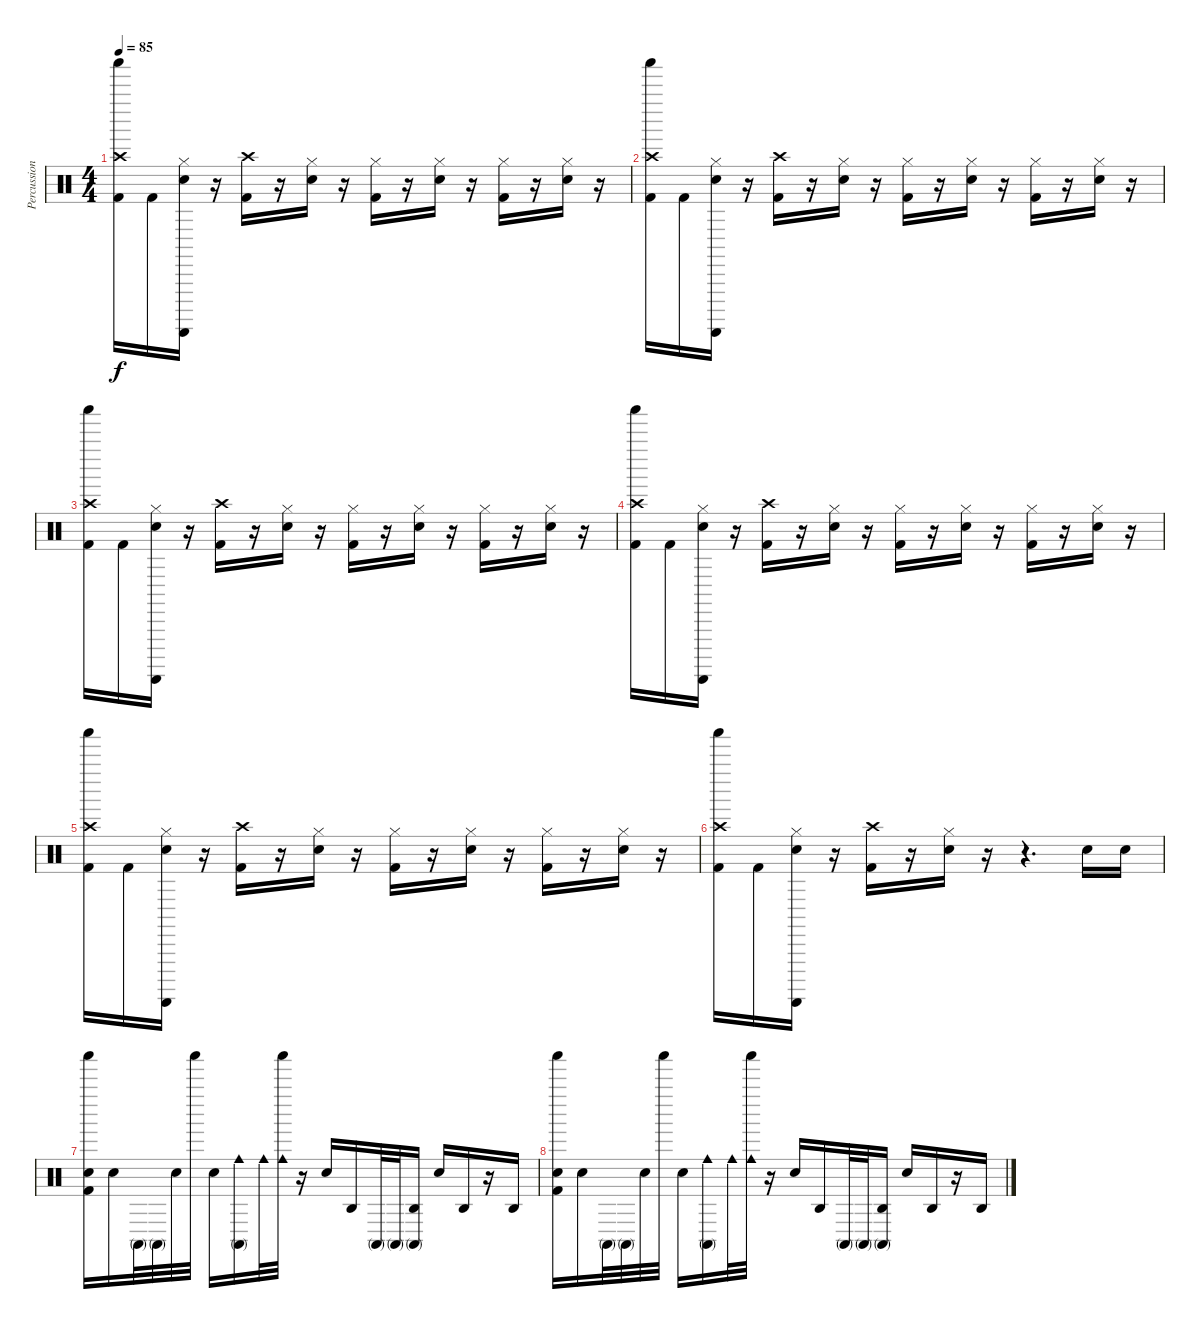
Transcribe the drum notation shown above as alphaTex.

\track ("Percussioni" "Percussion") {instrument percussion}
\staff {score}
\articulation defaults
\ts (4 4)
\tempo 85
\clef neutral
\ks c
("Shaker (hit)" "Crash high (hit)" "Kick (hit) 2").16{dy f} "Kick (hit) 2".16 ("Hi-Hat (closed)" "Guiro (scrap-return)" "Electric Snare (hit)").16 r.16 ("Crash high (hit)" "Kick (hit) 2").16 r.16 ("Hi-Hat (closed)" "Electric Snare (hit)").16 r.16 ("Hi-Hat (closed)" "Kick (hit) 2").16 r.16 ("Hi-Hat (closed)" "Electric Snare (hit)").16 r.16 ("Hi-Hat (closed)" "Kick (hit) 2").16 r.16 ("Hi-Hat (closed)" "Electric Snare (hit)").16 r.16 |
("Shaker (hit)" "Crash high (hit)" "Kick (hit) 2").16 "Kick (hit) 2".16 ("Hi-Hat (closed)" "Guiro (scrap-return)" "Electric Snare (hit)").16 r.16 ("Crash high (hit)" "Kick (hit) 2").16 r.16 ("Hi-Hat (closed)" "Electric Snare (hit)").16 r.16 ("Hi-Hat (closed)" "Kick (hit) 2").16 r.16 ("Hi-Hat (closed)" "Electric Snare (hit)").16 r.16 ("Hi-Hat (closed)" "Kick (hit) 2").16 r.16 ("Hi-Hat (closed)" "Electric Snare (hit)").16 r.16 |
("Shaker (hit)" "Crash high (hit)" "Kick (hit) 2").16 "Kick (hit) 2".16 ("Hi-Hat (closed)" "Guiro (scrap-return)" "Electric Snare (hit)").16 r.16 ("Crash high (hit)" "Kick (hit) 2").16 r.16 ("Hi-Hat (closed)" "Electric Snare (hit)").16 r.16 ("Hi-Hat (closed)" "Kick (hit) 2").16 r.16 ("Hi-Hat (closed)" "Electric Snare (hit)").16 r.16 ("Hi-Hat (closed)" "Kick (hit) 2").16 r.16 ("Hi-Hat (closed)" "Electric Snare (hit)").16 r.16 |
("Shaker (hit)" "Crash high (hit)" "Kick (hit) 2").16 "Kick (hit) 2".16 ("Hi-Hat (closed)" "Guiro (scrap-return)" "Electric Snare (hit)").16 r.16 ("Crash high (hit)" "Kick (hit) 2").16 r.16 ("Hi-Hat (closed)" "Electric Snare (hit)").16 r.16 ("Hi-Hat (closed)" "Kick (hit) 2").16 r.16 ("Hi-Hat (closed)" "Electric Snare (hit)").16 r.16 ("Hi-Hat (closed)" "Kick (hit) 2").16 r.16 ("Hi-Hat (closed)" "Electric Snare (hit)").16 r.16 |
("Shaker (hit)" "Crash high (hit)" "Kick (hit) 2").16 "Kick (hit) 2".16 ("Hi-Hat (closed)" "Guiro (scrap-return)" "Electric Snare (hit)").16 r.16 ("Crash high (hit)" "Kick (hit) 2").16 r.16 ("Hi-Hat (closed)" "Electric Snare (hit)").16 r.16 ("Hi-Hat (closed)" "Kick (hit) 2").16 r.16 ("Hi-Hat (closed)" "Electric Snare (hit)").16 r.16 ("Hi-Hat (closed)" "Kick (hit) 2").16 r.16 ("Hi-Hat (closed)" "Electric Snare (hit)").16 r.16 |
("Shaker (hit)" "Crash high (hit)" "Kick (hit) 2").16 "Kick (hit) 2".16 ("Hi-Hat (closed)" "Guiro (scrap-return)" "Electric Snare (hit)").16 r.16 ("Crash high (hit)" "Kick (hit) 2").16 r.16 ("Hi-Hat (closed)" "Electric Snare (hit)").16 r.16 r.4{d} "Electric Snare (hit)".16 "Electric Snare (hit)".16 |
("Shaker (hit)" "Electric Snare (hit)" "Kick (hit) 2").16 "Electric Snare (hit)".16 "Conga high (mute)".32 "Conga high (mute)".32 "Snare (hit)".32 "Shaker (hit)".32 "Electric Snare (hit)".16 ("Conga high (mute)" "Cowbell medium (hit)").16 "Cowbell medium (hit)".32 ("Shaker (hit)" "Cowbell medium (hit)").32 r.16 "Electric Snare (hit)".16 "Agogo high (hit)".16 "Conga high (mute)".32 "Conga high (mute)".32 ("Agogo high (hit)" "Conga high (mute)").16 "Electric Snare (hit)".16 "Agogo high (hit)".16 r.16 "Agogo high (hit)".16 |
("Shaker (hit)" "Electric Snare (hit)" "Kick (hit) 2").16 "Electric Snare (hit)".16 "Conga high (mute)".32 "Conga high (mute)".32 "Snare (hit)".32 "Shaker (hit)".32 "Electric Snare (hit)".16 ("Conga high (mute)" "Cowbell medium (hit)").16 "Cowbell medium (hit)".32 ("Shaker (hit)" "Cowbell medium (hit)").32 r.16 "Electric Snare (hit)".16 "Agogo high (hit)".16 "Conga high (mute)".32 "Conga high (mute)".32 ("Agogo high (hit)" "Conga high (mute)").16 "Electric Snare (hit)".16 "Agogo high (hit)".16 r.16 "Agogo high (hit)".16
